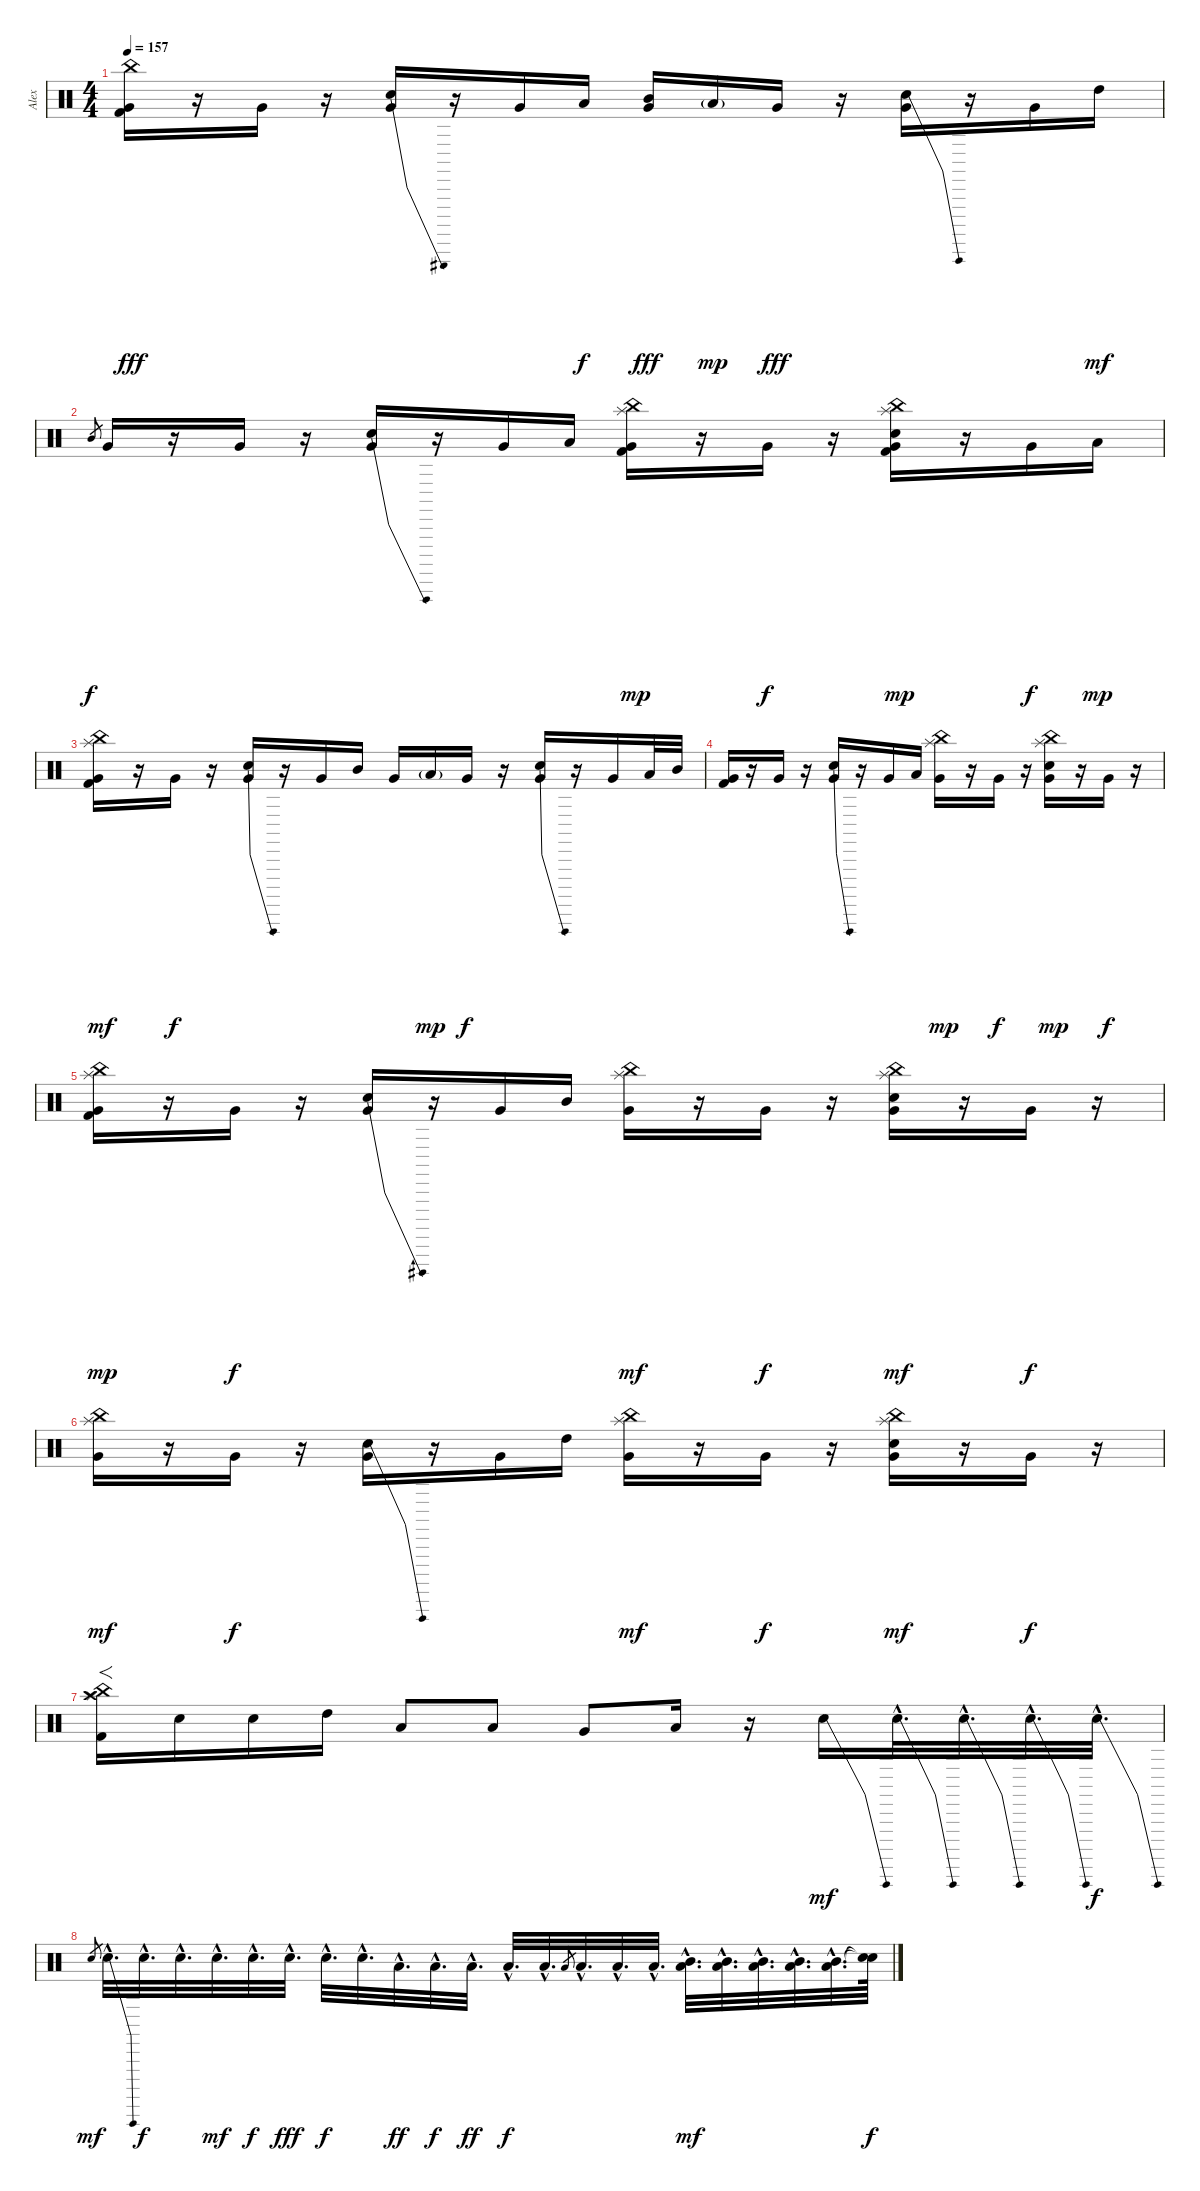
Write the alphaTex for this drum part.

\track ("Alex" "Alex") {instrument percussion}
\staff {score}
\articulation defaults
\ts (4 4)
\tempo 157
\clef neutral
\ks c
("China (hit)" "Very Low Tom (hit)" "Kick (hit) 2").16{dy fff} r.16 "Very Low Tom (hit)".16 r.16 ("Electric Snare (hit)"{be (bend 0 0 60 10)} "Very Low Tom (hit)").16 r.16 "Very Low Tom (hit)".16 "Low Tom (hit)".16{dy f} ("Mid Tom (hit)" "Very Low Tom (hit)").16{dy fff} "Low Tom (hit)"{g}.16{dy mp} "Very Low Tom (hit)".16{dy fff} r.16 ("Electric Snare (hit)"{be (bend 0 0 60 12)} "Very Low Tom (hit)").16 r.16 "Very Low Tom (hit)".16 "High Tom (hit)".16{dy mf} |
"Mid Tom (hit)".8{gr dy f} "Very Low Tom (hit)".16 r.16 "Very Low Tom (hit)".16 r.16 ("Electric Snare (hit)"{be (bend 0 0 60 12)} "Very Low Tom (hit)").16 r.16 "Very Low Tom (hit)".16 "Low Tom (hit)".16 ("Splash (hit)" "China (hit)" "Very Low Tom (hit)" "Kick (hit) 2").16{dy mp} r.16 "Very Low Tom (hit)".16{dy f} r.16 ("Splash (hit)" "China (hit)" "Electric Snare (hit)" "Very Low Tom (hit)" "Kick (hit) 2").16{dy mp} r.16 "Very Low Tom (hit)".16{dy f} "Low Tom (hit)".16{dy mp} |
("Splash (hit)" "China (hit)" "Very Low Tom (hit)" "Kick (hit) 2").16{dy mf} r.16 "Very Low Tom (hit)".16{dy f} r.16 ("Electric Snare (hit)"{be (bend 0 0 60 12)} "Very Low Tom (hit)").16 r.16 "Very Low Tom (hit)".16 "Mid Tom (hit)".16 "Very Low Tom (hit)".16 "Low Tom (hit)"{g}.16{dy mp} "Very Low Tom (hit)".16{dy f} r.16 ("Electric Snare (hit)"{be (bend 0 0 60 12)} "Very Low Tom (hit)").16 r.16 "Very Low Tom (hit)".16 "Low Tom (hit)".32 "Mid Tom (hit)".32 |
("Very Low Tom (hit)" "Kick (hit) 2").16 r.16 "Very Low Tom (hit)".16 r.16 ("Electric Snare (hit)"{be (bend 0 0 60 12)} "Very Low Tom (hit)").16 r.16 "Very Low Tom (hit)".16 "Low Tom (hit)".16 ("Splash (hit)" "China (hit)" "Very Low Tom (hit)").16{dy mp} r.16 "Very Low Tom (hit)".16{dy f} r.16 ("Splash (hit)" "China (hit)" "Electric Snare (hit)" "Very Low Tom (hit)").16{dy mp} r.16 "Very Low Tom (hit)".16{dy f} r.16 |
("Splash (hit)" "China (hit)" "Very Low Tom (hit)" "Kick (hit) 2").16{dy mp} r.16 "Very Low Tom (hit)".16{dy f} r.16 ("Electric Snare (hit)"{be (bend 0 0 60 7)} "Very Low Tom (hit)").16 r.16 "Very Low Tom (hit)".16 "Mid Tom (hit)".16 ("Splash (hit)" "China (hit)" "Very Low Tom (hit)").16{dy mf} r.16 "Very Low Tom (hit)".16{dy f} r.16 ("Splash (hit)" "China (hit)" "Electric Snare (hit)" "Very Low Tom (hit)").16{dy mf} r.16 "Very Low Tom (hit)".16{dy f} r.16 |
("Splash (hit)" "China (hit)" "Very Low Tom (hit)").16{dy mf} r.16 "Very Low Tom (hit)".16{dy f} r.16 ("Electric Snare (hit)"{be (bend 0 0 60 4)} "Very Low Tom (hit)").16 r.16 "Very Low Tom (hit)".16 "High Tom (hit)".16 ("Splash (hit)" "China (hit)" "Very Low Tom (hit)").16{dy mf} r.16 "Very Low Tom (hit)".16{dy f} r.16 ("Splash (hit)" "China (hit)" "Electric Snare (hit)" "Very Low Tom (hit)").16{dy mf} r.16 "Very Low Tom (hit)".16{dy f} r.16 |
("Crash high (hit)" "China (hit)" "Splash (hit)" "Kick (hit) 2").16{f} "Electric Snare (hit)".16 "Electric Snare (hit)".16 "High Tom (hit)".16 "Low Tom (hit)".8 "Low Tom (hit)".8 "Very Low Tom (hit)".8 "Low Tom (hit)".16 r.16 "Electric Snare (hit)"{be (bend 0 0 60 12)}.16{dy mf} "Electric Snare (hit)"{be (bend 0 0 60 12) hac}.32{d} "Electric Snare (hit)"{be (bend 0 0 60 12) hac}.32{d} "Electric Snare (hit)"{be (bend 0 0 60 12) hac}.32{d} "Electric Snare (hit)"{be (bend 0 0 60 12) hac}.32{d dy f} |
"Electric Snare (hit)".8{gr dy mf} "Electric Snare (hit)"{be (bend 0 0 60 12) hac}.32{d} "Electric Snare (hit)"{hac}.32{d dy f} "Electric Snare (hit)"{hac}.32{d} "Electric Snare (hit)"{hac}.32{d dy mf} "Electric Snare (hit)"{hac}.32{d dy f} "Electric Snare (hit)"{hac}.32{d dy fff} "Electric Snare (hit)"{hac}.32{d dy f} "Electric Snare (hit)"{hac}.32{d} "Low Tom (hit)"{hac}.32{d dy ff} "Low Tom (hit)"{hac}.32{d dy f} "Low Tom (hit)"{hac}.32{d dy ff} "Low Tom (hit)"{hac}.32{d dy f} "Low Tom (hit)"{hac}.32{d} "Low Tom (hit)".8{gr} "Low Tom (hit)"{hac}.32{d} "Low Tom (hit)"{hac}.32{d} "Low Tom (hit)"{hac}.32{d} ("Mid Tom (hit)"{hac} "Low Tom (hit)"{hac}).32{d dy mf} ("Mid Tom (hit)"{hac} "Low Tom (hit)"{hac}).32{d} ("Mid Tom (hit)"{hac} "Low Tom (hit)"{hac}).32{d} ("Mid Tom (hit)"{hac} "Low Tom (hit)"{hac}).32{d} ("Mid Tom (hit)"{hac} "Low Tom (hit)"{hac}).32{d} ("Snare (hit)"{t} "Snare (hit)"{t}).64{dy f}
